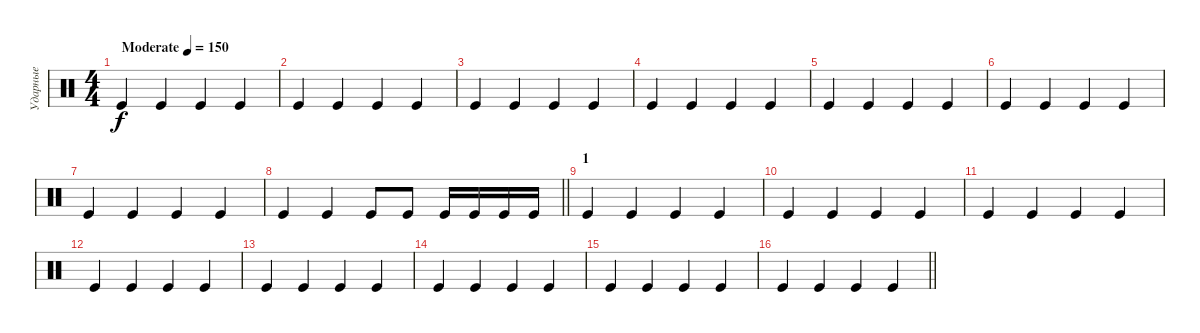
\track ("Ударные" "Ударные") {instrument percussion}
\staff {score}
\articulation defaults
\ts (4 4)
\tempo (150 "Moderate")
\clef neutral
\ks c "Kick (hit)".4{dy f} "Kick (hit)".4 "Kick (hit)".4 "Kick (hit)".4
|
"Kick (hit)".4 "Kick (hit)".4 "Kick (hit)".4 "Kick (hit)".4 |
"Kick (hit)".4 "Kick (hit)".4 "Kick (hit)".4 "Kick (hit)".4 |
"Kick (hit)".4 "Kick (hit)".4 "Kick (hit)".4 "Kick (hit)".4 |
"Kick (hit)".4 "Kick (hit)".4 "Kick (hit)".4 "Kick (hit)".4 |
"Kick (hit)".4 "Kick (hit)".4 "Kick (hit)".4 "Kick (hit)".4 |
"Kick (hit)".4 "Kick (hit)".4 "Kick (hit)".4 "Kick (hit)".4 |
\barLineRight lightlight "Kick (hit)".4 "Kick (hit)".4 "Kick (hit)".8 "Kick (hit)".8 "Kick (hit)".16 "Kick (hit)".16 "Kick (hit)".16 "Kick (hit)".16
|
\section ("" "1")
"Kick (hit)".4 "Kick (hit)".4 "Kick (hit)".4 "Kick (hit)".4 |
"Kick (hit)".4 "Kick (hit)".4 "Kick (hit)".4 "Kick (hit)".4 |
"Kick (hit)".4 "Kick (hit)".4 "Kick (hit)".4 "Kick (hit)".4 |
"Kick (hit)".4 "Kick (hit)".4 "Kick (hit)".4 "Kick (hit)".4 |
"Kick (hit)".4 "Kick (hit)".4 "Kick (hit)".4 "Kick (hit)".4 |
"Kick (hit)".4 "Kick (hit)".4 "Kick (hit)".4 "Kick (hit)".4 |
"Kick (hit)".4 "Kick (hit)".4 "Kick (hit)".4 "Kick (hit)".4 |
\barLineRight lightlight "Kick (hit)".4 "Kick (hit)".4 "Kick (hit)".4 "Kick (hit)".4
